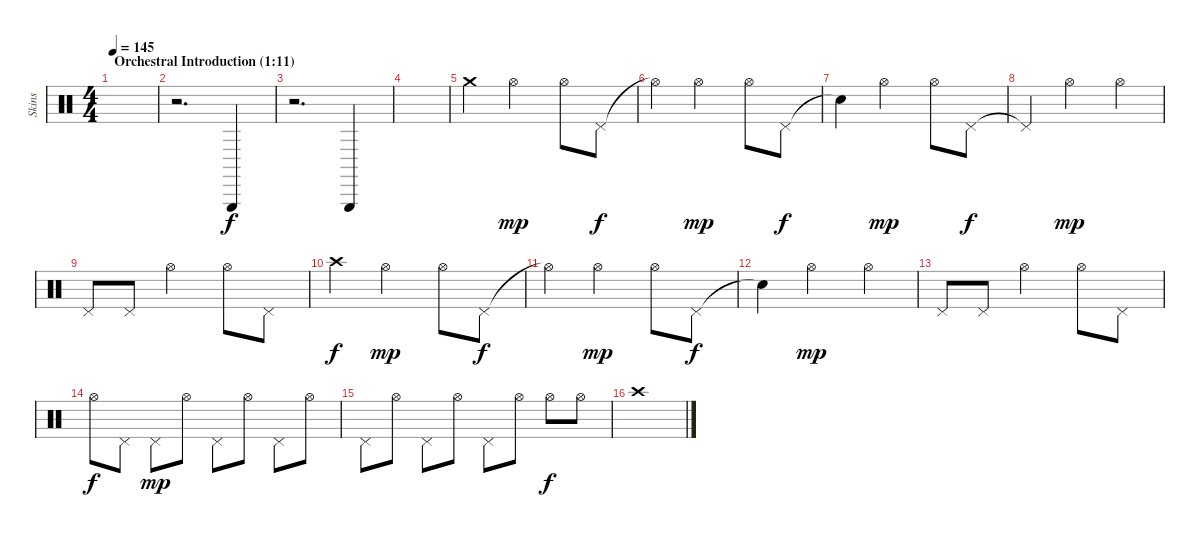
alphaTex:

\track ("Skins" "Skins") {instrument percussion}
\staff {score}
\articulation defaults
\ts (4 4)
\section ("" "Orchestral Introduction (1:11)")
\tempo 145
\clef neutral
\ks c
|
r.2{d balance 0} "Triangle (hit)".4 |
r.2{d} "Triangle (hit)".4 |
|
"Crash medium (hit)".4{balance 8} "Hi-Hat (open)".2{dy mp} "Hi-Hat (open)".8 "Pedal Hi-Hat (hit)".8{dy f} |
"Hi-Hat (open)"{t}.4 "Hi-Hat (open)".2{dy mp} "Hi-Hat (open)".8 "Pedal Hi-Hat (hit)".8{dy f} |
"Snare (hit)"{t}.4 "Hi-Hat (open)".2{dy mp} "Hi-Hat (open)".8 "Pedal Hi-Hat (hit)".8{dy f} |
"Pedal Hi-Hat (hit)"{t}.4 "Hi-Hat (open)".2{dy mp} "Hi-Hat (open)".4 |
"Pedal Hi-Hat (hit)".8 "Pedal Hi-Hat (hit)".8 "Hi-Hat (open)".2 "Hi-Hat (open)".8 "Pedal Hi-Hat (hit)".8 |
"Crash high (hit)".4{dy f} "Hi-Hat (open)".2{dy mp} "Hi-Hat (open)".8 "Pedal Hi-Hat (hit)".8{dy f} |
"Hi-Hat (open)"{t}.4 "Hi-Hat (open)".2{dy mp} "Hi-Hat (open)".8 "Pedal Hi-Hat (hit)".8{dy f} |
"Snare (hit)"{t}.4 "Hi-Hat (open)".2{dy mp} "Hi-Hat (open)".4 |
"Pedal Hi-Hat (hit)".8 "Pedal Hi-Hat (hit)".8 "Hi-Hat (open)".2 "Hi-Hat (open)".8 "Pedal Hi-Hat (hit)".8 |
"Hi-Hat (open)".8{dy f} "Pedal Hi-Hat (hit)".8 "Pedal Hi-Hat (hit)".8{dy mp} "Hi-Hat (open)".8 "Pedal Hi-Hat (hit)".8 "Hi-Hat (open)".8 "Pedal Hi-Hat (hit)".8 "Hi-Hat (open)".8 |
"Pedal Hi-Hat (hit)".8 "Hi-Hat (open)".8 "Pedal Hi-Hat (hit)".8 "Hi-Hat (open)".8 "Pedal Hi-Hat (hit)".8 "Hi-Hat (open)".8 "Hi-Hat (open)".8{dy f} "Hi-Hat (open)".8 |
"Crash high (hit)".1
